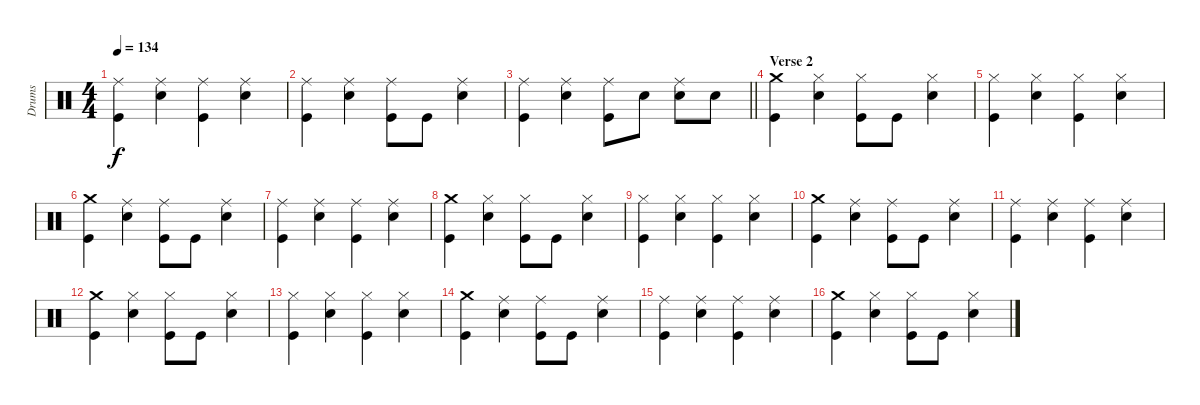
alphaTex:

\track ("Drums" "Drums") {instrument percussion}
\staff {score}
\articulation defaults
\ts (4 4)
\tempo 134
\clef neutral
\ks c
("Ride (middle)" "Kick (hit)").4{dy f} ("Ride (middle)" "Snare (hit) 2").4 ("Ride (middle)" "Kick (hit)").4 ("Ride (middle)" "Snare (hit) 2").4 |
("Ride (middle)" "Kick (hit)").4 ("Ride (middle)" "Snare (hit) 2").4 ("Ride (middle)" "Kick (hit)").8 "Kick (hit)".8 ("Ride (middle)" "Snare (hit) 2").4 |
\barLineRight lightlight
("Ride (middle)" "Kick (hit)").4 ("Ride (middle)" "Snare (hit) 2").4 ("Ride (middle)" "Kick (hit)").8 "Snare (hit) 2".8 ("Ride (middle)" "Snare (hit) 2").8 "Snare (hit) 2".8 |
\section ("" "Verse 2")
("Crash medium (hit)" "Kick (hit)").4 ("Hi-Hat (closed)" "Snare (hit) 2").4 ("Hi-Hat (closed)" "Kick (hit)").8 "Kick (hit)".8 ("Hi-Hat (closed)" "Snare (hit) 2").4 |
("Hi-Hat (closed)" "Kick (hit)").4 ("Hi-Hat (closed)" "Snare (hit) 2").4 ("Hi-Hat (closed)" "Kick (hit)").4 ("Hi-Hat (closed)" "Snare (hit) 2").4 |
("Crash medium (hit)" "Kick (hit)").4 ("Ride (middle)" "Snare (hit) 2").4 ("Ride (middle)" "Kick (hit)").8 "Kick (hit)".8 ("Ride (middle)" "Snare (hit) 2").4 |
("Ride (middle)" "Kick (hit)").4 ("Ride (middle)" "Snare (hit) 2").4 ("Ride (middle)" "Kick (hit)").4 ("Ride (middle)" "Snare (hit) 2").4 |
("Crash medium (hit)" "Kick (hit)").4 ("Hi-Hat (closed)" "Snare (hit) 2").4 ("Hi-Hat (closed)" "Kick (hit)").8 "Kick (hit)".8 ("Hi-Hat (closed)" "Snare (hit) 2").4 |
("Hi-Hat (closed)" "Kick (hit)").4 ("Hi-Hat (closed)" "Snare (hit) 2").4 ("Hi-Hat (closed)" "Kick (hit)").4 ("Hi-Hat (closed)" "Snare (hit) 2").4 |
("Crash medium (hit)" "Kick (hit)").4 ("Ride (middle)" "Snare (hit) 2").4 ("Ride (middle)" "Kick (hit)").8 "Kick (hit)".8 ("Ride (middle)" "Snare (hit) 2").4 |
("Ride (middle)" "Kick (hit)").4 ("Ride (middle)" "Snare (hit) 2").4 ("Ride (middle)" "Kick (hit)").4 ("Ride (middle)" "Snare (hit) 2").4 |
("Crash medium (hit)" "Kick (hit)").4 ("Hi-Hat (closed)" "Snare (hit) 2").4 ("Hi-Hat (closed)" "Kick (hit)").8 "Kick (hit)".8 ("Hi-Hat (closed)" "Snare (hit) 2").4 |
("Hi-Hat (closed)" "Kick (hit)").4 ("Hi-Hat (closed)" "Snare (hit) 2").4 ("Hi-Hat (closed)" "Kick (hit)").4 ("Hi-Hat (closed)" "Snare (hit) 2").4 |
("Crash medium (hit)" "Kick (hit)").4 ("Ride (middle)" "Snare (hit) 2").4 ("Ride (middle)" "Kick (hit)").8 "Kick (hit)".8 ("Ride (middle)" "Snare (hit) 2").4 |
("Ride (middle)" "Kick (hit)").4 ("Ride (middle)" "Snare (hit) 2").4 ("Ride (middle)" "Kick (hit)").4 ("Ride (middle)" "Snare (hit) 2").4 |
("Crash medium (hit)" "Kick (hit)").4 ("Hi-Hat (closed)" "Snare (hit) 2").4 ("Hi-Hat (closed)" "Kick (hit)").8 "Kick (hit)".8 ("Hi-Hat (closed)" "Snare (hit) 2").4
